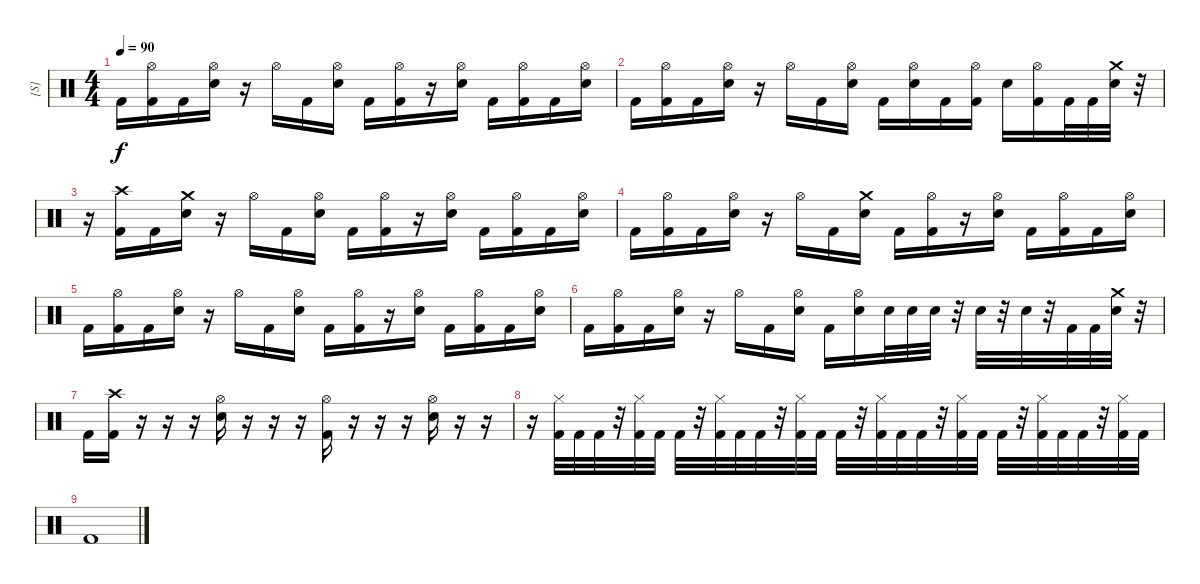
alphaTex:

\track ("[S]" "[S]") {instrument percussion}
\staff {score}
\articulation defaults
\ts (4 4)
\tempo 90
\clef neutral
\ks c "Kick (hit) 2".16{dy f}
("Hi-Hat (open)" "Kick (hit) 2").16 "Kick (hit) 2".16 ("Hi-Hat (open)" "Electric Snare (hit)").16 r.16 "Hi-Hat (open)".16 "Kick (hit) 2".16 ("Hi-Hat (open)" "Electric Snare (hit)").16 "Kick (hit) 2".16 ("Hi-Hat (open)" "Kick (hit) 2").16 r.16 ("Hi-Hat (open)" "Electric Snare (hit)").16 "Kick (hit) 2".16 ("Hi-Hat (open)" "Kick (hit) 2").16 "Kick (hit) 2".16 ("Hi-Hat (open)" "Electric Snare (hit)").16 |
"Kick (hit) 2".16 ("Hi-Hat (open)" "Kick (hit) 2").16 "Kick (hit) 2".16 ("Hi-Hat (open)" "Electric Snare (hit)").16 r.16 "Hi-Hat (open)".16 "Kick (hit) 2".16 ("Hi-Hat (open)" "Electric Snare (hit)").16 "Kick (hit) 2".16 ("Hi-Hat (open)" "Electric Snare (hit)").16 "Kick (hit) 2".16 ("Hi-Hat (open)" "Kick (hit) 2").16 "Electric Snare (hit)".16 ("Hi-Hat (open)" "Kick (hit) 2").16 "Kick (hit) 2".32 "Kick (hit) 2".32 ("Crash medium (hit)" "Electric Snare (hit)").32 r.32 |
r.16 ("Crash high (hit)" "Kick (hit) 2").16 "Kick (hit) 2".16 ("Crash medium (hit)" "Electric Snare (hit)").16 r.16 "Hi-Hat (open)".16 "Kick (hit) 2".16 ("Hi-Hat (open)" "Electric Snare (hit)").16 "Kick (hit) 2".16 ("Hi-Hat (open)" "Kick (hit) 2").16 r.16 ("Hi-Hat (open)" "Electric Snare (hit)").16 "Kick (hit) 2".16 ("Hi-Hat (open)" "Kick (hit) 2").16 "Kick (hit) 2".16 ("Hi-Hat (open)" "Electric Snare (hit)").16 |
"Kick (hit) 2".16 ("Hi-Hat (open)" "Kick (hit) 2").16 "Kick (hit) 2".16 ("Hi-Hat (open)" "Electric Snare (hit)").16 r.16 "Hi-Hat (open)".16 "Kick (hit) 2".16 ("Crash medium (hit)" "Electric Snare (hit)").16 "Kick (hit) 2".16 ("Hi-Hat (open)" "Kick (hit) 2").16 r.16 ("Hi-Hat (open)" "Electric Snare (hit)").16 "Kick (hit) 2".16 ("Hi-Hat (open)" "Kick (hit) 2").16 "Kick (hit) 2".16 ("Hi-Hat (open)" "Electric Snare (hit)").16 |
"Kick (hit) 2".16 ("Hi-Hat (open)" "Kick (hit) 2").16 "Kick (hit) 2".16 ("Hi-Hat (open)" "Electric Snare (hit)").16 r.16 "Hi-Hat (open)".16 "Kick (hit) 2".16 ("Hi-Hat (open)" "Electric Snare (hit)").16 "Kick (hit) 2".16 ("Hi-Hat (open)" "Kick (hit) 2").16 r.16 ("Hi-Hat (open)" "Electric Snare (hit)").16 "Kick (hit) 2".16 ("Hi-Hat (open)" "Kick (hit) 2").16 "Kick (hit) 2".16 ("Hi-Hat (open)" "Electric Snare (hit)").16 |
"Kick (hit) 2".16 ("Hi-Hat (open)" "Kick (hit) 2").16 "Kick (hit) 2".16 ("Hi-Hat (open)" "Electric Snare (hit)").16 r.16 "Hi-Hat (open)".16 "Kick (hit) 2".16 ("Hi-Hat (open)" "Electric Snare (hit)").16 "Kick (hit) 2".16 ("Hi-Hat (open)" "Electric Snare (hit)").16 "Electric Snare (hit)".32 "Electric Snare (hit)".32 "Electric Snare (hit)".32 r.32 "Electric Snare (hit)".32 r.32 "Electric Snare (hit)".32 r.32 "Kick (hit) 2".32 "Kick (hit) 2".32 ("Crash medium (hit)" "Electric Snare (hit)").32 r.32 |
"Kick (hit) 2".16 ("Crash high (hit)" "Kick (hit) 2").16 r.16 r.16 r.16 ("Hi-Hat (open)" "Electric Snare (hit)").16 r.16 r.16 r.16 ("Hi-Hat (open)" "Kick (hit) 2").16 r.16 r.16 r.16 ("Hi-Hat (open)" "Electric Snare (hit)").16 r.16 r.16 |
r.16 ("Hi-Hat (closed)" "Kick (hit) 2").32 "Kick (hit) 2".32 "Kick (hit) 2".32 r.32 ("Hi-Hat (closed)" "Kick (hit) 2").32 "Kick (hit) 2".32 "Kick (hit) 2".32 r.32 ("Hi-Hat (closed)" "Kick (hit) 2").32 "Kick (hit) 2".32 "Kick (hit) 2".32 r.32 ("Hi-Hat (closed)" "Kick (hit) 2").32 "Kick (hit) 2".32 "Kick (hit) 2".32 r.32 ("Hi-Hat (closed)" "Kick (hit) 2").32 "Kick (hit) 2".32 "Kick (hit) 2".32 r.32 ("Hi-Hat (closed)" "Kick (hit) 2").32 "Kick (hit) 2".32 "Kick (hit) 2".32 r.32 ("Hi-Hat (closed)" "Kick (hit) 2").32 "Kick (hit) 2".32 "Kick (hit) 2".32 r.32 ("Hi-Hat (closed)" "Kick (hit) 2").32 "Kick (hit) 2".32 |
"Kick (hit) 2".1
